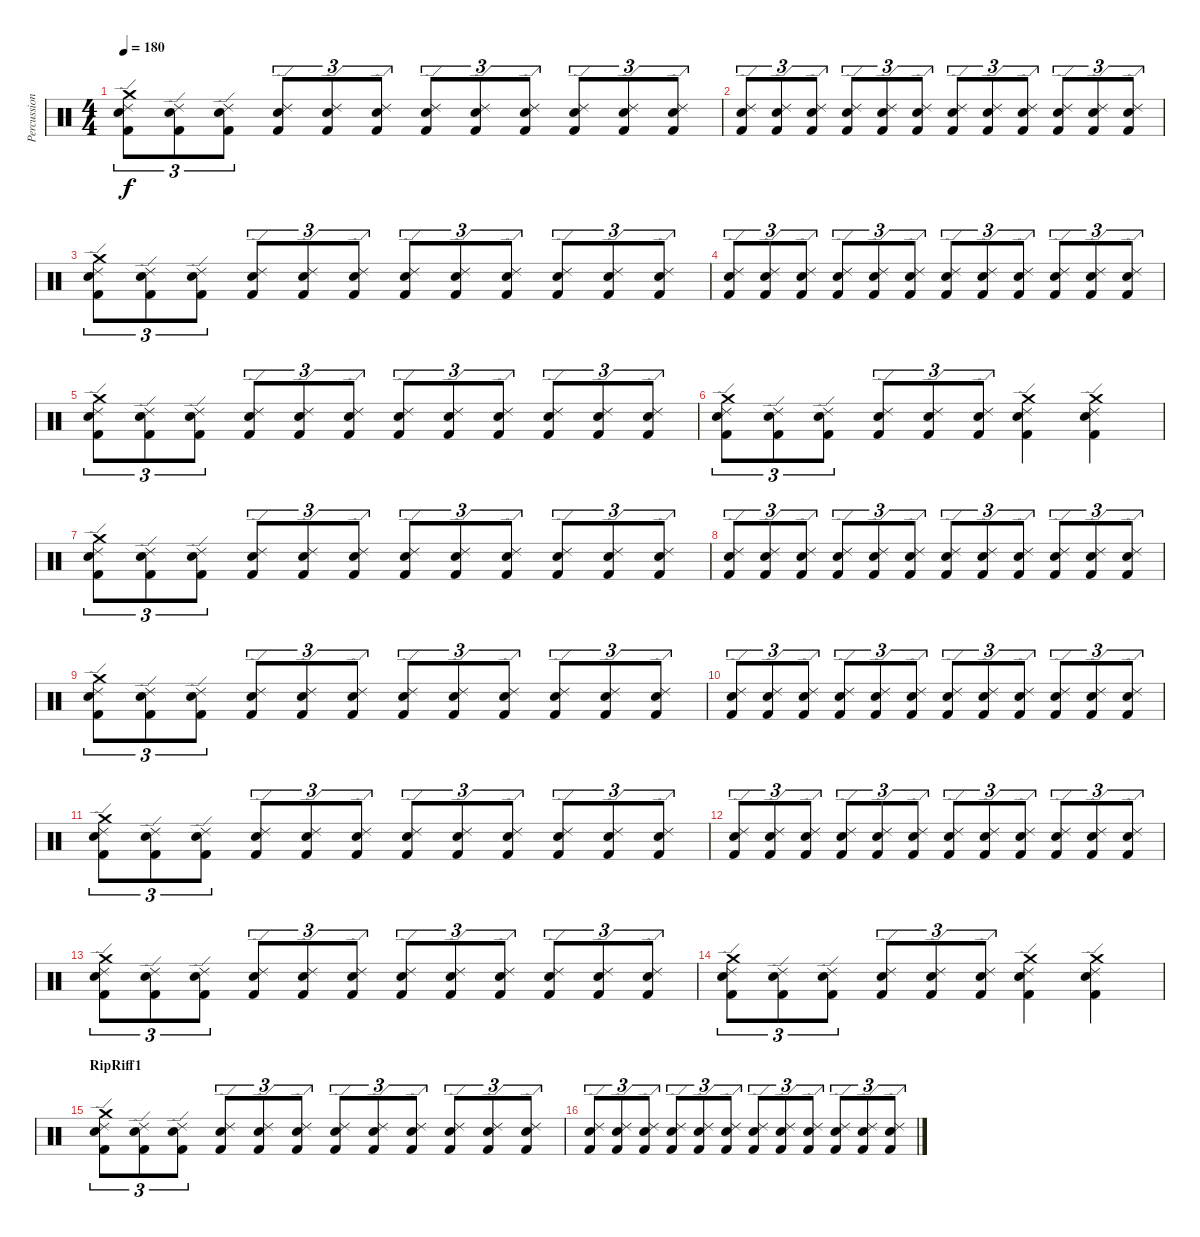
\track ("Percussioni" "Percussion") {instrument percussion}
\staff {score}
\articulation defaults
\ts (4 4)
\tempo 180
\clef neutral
\ks c
("Crash medium (hit)" "Ride (edge) 2" "Snare (hit) 2" "Kick (hit) 2").8{tu (3 2) dy f} ("Ride (edge) 2" "Snare (hit) 2" "Kick (hit) 2").8{tu (3 2)} ("Ride (edge) 2" "Snare (hit) 2" "Kick (hit) 2").8{tu (3 2)} ("Ride (edge) 2" "Snare (hit) 2" "Kick (hit) 2").8{tu (3 2)} ("Ride (edge) 2" "Snare (hit) 2" "Kick (hit) 2").8{tu (3 2)} ("Ride (edge) 2" "Snare (hit) 2" "Kick (hit) 2").8{tu (3 2)} ("Ride (edge) 2" "Snare (hit) 2" "Kick (hit) 2").8{tu (3 2)} ("Ride (edge) 2" "Snare (hit) 2" "Kick (hit) 2").8{tu (3 2)} ("Ride (edge) 2" "Snare (hit) 2" "Kick (hit) 2").8{tu (3 2)} ("Ride (edge) 2" "Snare (hit) 2" "Kick (hit) 2").8{tu (3 2)} ("Ride (edge) 2" "Snare (hit) 2" "Kick (hit) 2").8{tu (3 2)} ("Ride (edge) 2" "Snare (hit) 2" "Kick (hit) 2").8{tu (3 2)} |
("Ride (edge) 2" "Snare (hit) 2" "Kick (hit) 2").8{tu (3 2)} ("Ride (edge) 2" "Snare (hit) 2" "Kick (hit) 2").8{tu (3 2)} ("Ride (edge) 2" "Snare (hit) 2" "Kick (hit) 2").8{tu (3 2)} ("Ride (edge) 2" "Snare (hit) 2" "Kick (hit) 2").8{tu (3 2)} ("Ride (edge) 2" "Snare (hit) 2" "Kick (hit) 2").8{tu (3 2)} ("Ride (edge) 2" "Snare (hit) 2" "Kick (hit) 2").8{tu (3 2)} ("Ride (edge) 2" "Snare (hit) 2" "Kick (hit) 2").8{tu (3 2)} ("Ride (edge) 2" "Snare (hit) 2" "Kick (hit) 2").8{tu (3 2)} ("Ride (edge) 2" "Snare (hit) 2" "Kick (hit) 2").8{tu (3 2)} ("Ride (edge) 2" "Snare (hit) 2" "Kick (hit) 2").8{tu (3 2)} ("Ride (edge) 2" "Snare (hit) 2" "Kick (hit) 2").8{tu (3 2)} ("Ride (edge) 2" "Snare (hit) 2" "Kick (hit) 2").8{tu (3 2)} |
("Crash medium (hit)" "Ride (edge) 2" "Snare (hit) 2" "Kick (hit) 2").8{tu (3 2)} ("Ride (edge) 2" "Snare (hit) 2" "Kick (hit) 2").8{tu (3 2)} ("Ride (edge) 2" "Snare (hit) 2" "Kick (hit) 2").8{tu (3 2)} ("Ride (edge) 2" "Snare (hit) 2" "Kick (hit) 2").8{tu (3 2)} ("Ride (edge) 2" "Snare (hit) 2" "Kick (hit) 2").8{tu (3 2)} ("Ride (edge) 2" "Snare (hit) 2" "Kick (hit) 2").8{tu (3 2)} ("Ride (edge) 2" "Snare (hit) 2" "Kick (hit) 2").8{tu (3 2)} ("Ride (edge) 2" "Snare (hit) 2" "Kick (hit) 2").8{tu (3 2)} ("Ride (edge) 2" "Snare (hit) 2" "Kick (hit) 2").8{tu (3 2)} ("Ride (edge) 2" "Snare (hit) 2" "Kick (hit) 2").8{tu (3 2)} ("Ride (edge) 2" "Snare (hit) 2" "Kick (hit) 2").8{tu (3 2)} ("Ride (edge) 2" "Snare (hit) 2" "Kick (hit) 2").8{tu (3 2)} |
("Ride (edge) 2" "Snare (hit) 2" "Kick (hit) 2").8{tu (3 2)} ("Ride (edge) 2" "Snare (hit) 2" "Kick (hit) 2").8{tu (3 2)} ("Ride (edge) 2" "Snare (hit) 2" "Kick (hit) 2").8{tu (3 2)} ("Ride (edge) 2" "Snare (hit) 2" "Kick (hit) 2").8{tu (3 2)} ("Ride (edge) 2" "Snare (hit) 2" "Kick (hit) 2").8{tu (3 2)} ("Ride (edge) 2" "Snare (hit) 2" "Kick (hit) 2").8{tu (3 2)} ("Ride (edge) 2" "Snare (hit) 2" "Kick (hit) 2").8{tu (3 2)} ("Ride (edge) 2" "Snare (hit) 2" "Kick (hit) 2").8{tu (3 2)} ("Ride (edge) 2" "Snare (hit) 2" "Kick (hit) 2").8{tu (3 2)} ("Ride (edge) 2" "Snare (hit) 2" "Kick (hit) 2").8{tu (3 2)} ("Ride (edge) 2" "Snare (hit) 2" "Kick (hit) 2").8{tu (3 2)} ("Ride (edge) 2" "Snare (hit) 2" "Kick (hit) 2").8{tu (3 2)} |
("Crash medium (hit)" "Ride (edge) 2" "Snare (hit) 2" "Kick (hit) 2").8{tu (3 2)} ("Ride (edge) 2" "Snare (hit) 2" "Kick (hit) 2").8{tu (3 2)} ("Ride (edge) 2" "Snare (hit) 2" "Kick (hit) 2").8{tu (3 2)} ("Ride (edge) 2" "Snare (hit) 2" "Kick (hit) 2").8{tu (3 2)} ("Ride (edge) 2" "Snare (hit) 2" "Kick (hit) 2").8{tu (3 2)} ("Ride (edge) 2" "Snare (hit) 2" "Kick (hit) 2").8{tu (3 2)} ("Ride (edge) 2" "Snare (hit) 2" "Kick (hit) 2").8{tu (3 2)} ("Ride (edge) 2" "Snare (hit) 2" "Kick (hit) 2").8{tu (3 2)} ("Ride (edge) 2" "Snare (hit) 2" "Kick (hit) 2").8{tu (3 2)} ("Ride (edge) 2" "Snare (hit) 2" "Kick (hit) 2").8{tu (3 2)} ("Ride (edge) 2" "Snare (hit) 2" "Kick (hit) 2").8{tu (3 2)} ("Ride (edge) 2" "Snare (hit) 2" "Kick (hit) 2").8{tu (3 2)} |
("Crash medium (hit)" "Ride (edge) 2" "Snare (hit) 2" "Kick (hit) 2").8{tu (3 2)} ("Ride (edge) 2" "Snare (hit) 2" "Kick (hit) 2").8{tu (3 2)} ("Ride (edge) 2" "Snare (hit) 2" "Kick (hit) 2").8{tu (3 2)} ("Ride (edge) 2" "Snare (hit) 2" "Kick (hit) 2").8{tu (3 2)} ("Ride (edge) 2" "Snare (hit) 2" "Kick (hit) 2").8{tu (3 2)} ("Ride (edge) 2" "Snare (hit) 2" "Kick (hit) 2").8{tu (3 2)} ("Crash medium (hit)" "Ride (edge) 2" "Snare (hit) 2" "Kick (hit) 2").4 ("Crash medium (hit)" "Ride (edge) 2" "Snare (hit) 2" "Kick (hit) 2").4 |
("Crash medium (hit)" "Ride (edge) 2" "Snare (hit) 2" "Kick (hit) 2").8{tu (3 2)} ("Ride (edge) 2" "Snare (hit) 2" "Kick (hit) 2").8{tu (3 2)} ("Ride (edge) 2" "Snare (hit) 2" "Kick (hit) 2").8{tu (3 2)} ("Ride (edge) 2" "Snare (hit) 2" "Kick (hit) 2").8{tu (3 2)} ("Ride (edge) 2" "Snare (hit) 2" "Kick (hit) 2").8{tu (3 2)} ("Ride (edge) 2" "Snare (hit) 2" "Kick (hit) 2").8{tu (3 2)} ("Ride (edge) 2" "Snare (hit) 2" "Kick (hit) 2").8{tu (3 2)} ("Ride (edge) 2" "Snare (hit) 2" "Kick (hit) 2").8{tu (3 2)} ("Ride (edge) 2" "Snare (hit) 2" "Kick (hit) 2").8{tu (3 2)} ("Ride (edge) 2" "Snare (hit) 2" "Kick (hit) 2").8{tu (3 2)} ("Ride (edge) 2" "Snare (hit) 2" "Kick (hit) 2").8{tu (3 2)} ("Ride (edge) 2" "Snare (hit) 2" "Kick (hit) 2").8{tu (3 2)} |
("Ride (edge) 2" "Snare (hit) 2" "Kick (hit) 2").8{tu (3 2)} ("Ride (edge) 2" "Snare (hit) 2" "Kick (hit) 2").8{tu (3 2)} ("Ride (edge) 2" "Snare (hit) 2" "Kick (hit) 2").8{tu (3 2)} ("Ride (edge) 2" "Snare (hit) 2" "Kick (hit) 2").8{tu (3 2)} ("Ride (edge) 2" "Snare (hit) 2" "Kick (hit) 2").8{tu (3 2)} ("Ride (edge) 2" "Snare (hit) 2" "Kick (hit) 2").8{tu (3 2)} ("Ride (edge) 2" "Snare (hit) 2" "Kick (hit) 2").8{tu (3 2)} ("Ride (edge) 2" "Snare (hit) 2" "Kick (hit) 2").8{tu (3 2)} ("Ride (edge) 2" "Snare (hit) 2" "Kick (hit) 2").8{tu (3 2)} ("Ride (edge) 2" "Snare (hit) 2" "Kick (hit) 2").8{tu (3 2)} ("Ride (edge) 2" "Snare (hit) 2" "Kick (hit) 2").8{tu (3 2)} ("Ride (edge) 2" "Snare (hit) 2" "Kick (hit) 2").8{tu (3 2)} |
("Crash medium (hit)" "Ride (edge) 2" "Snare (hit) 2" "Kick (hit) 2").8{tu (3 2)} ("Ride (edge) 2" "Snare (hit) 2" "Kick (hit) 2").8{tu (3 2)} ("Ride (edge) 2" "Snare (hit) 2" "Kick (hit) 2").8{tu (3 2)} ("Ride (edge) 2" "Snare (hit) 2" "Kick (hit) 2").8{tu (3 2)} ("Ride (edge) 2" "Snare (hit) 2" "Kick (hit) 2").8{tu (3 2)} ("Ride (edge) 2" "Snare (hit) 2" "Kick (hit) 2").8{tu (3 2)} ("Ride (edge) 2" "Snare (hit) 2" "Kick (hit) 2").8{tu (3 2)} ("Ride (edge) 2" "Snare (hit) 2" "Kick (hit) 2").8{tu (3 2)} ("Ride (edge) 2" "Snare (hit) 2" "Kick (hit) 2").8{tu (3 2)} ("Ride (edge) 2" "Snare (hit) 2" "Kick (hit) 2").8{tu (3 2)} ("Ride (edge) 2" "Snare (hit) 2" "Kick (hit) 2").8{tu (3 2)} ("Ride (edge) 2" "Snare (hit) 2" "Kick (hit) 2").8{tu (3 2)} |
("Ride (edge) 2" "Snare (hit) 2" "Kick (hit) 2").8{tu (3 2)} ("Ride (edge) 2" "Snare (hit) 2" "Kick (hit) 2").8{tu (3 2)} ("Ride (edge) 2" "Snare (hit) 2" "Kick (hit) 2").8{tu (3 2)} ("Ride (edge) 2" "Snare (hit) 2" "Kick (hit) 2").8{tu (3 2)} ("Ride (edge) 2" "Snare (hit) 2" "Kick (hit) 2").8{tu (3 2)} ("Ride (edge) 2" "Snare (hit) 2" "Kick (hit) 2").8{tu (3 2)} ("Ride (edge) 2" "Snare (hit) 2" "Kick (hit) 2").8{tu (3 2)} ("Ride (edge) 2" "Snare (hit) 2" "Kick (hit) 2").8{tu (3 2)} ("Ride (edge) 2" "Snare (hit) 2" "Kick (hit) 2").8{tu (3 2)} ("Ride (edge) 2" "Snare (hit) 2" "Kick (hit) 2").8{tu (3 2)} ("Ride (edge) 2" "Snare (hit) 2" "Kick (hit) 2").8{tu (3 2)} ("Ride (edge) 2" "Snare (hit) 2" "Kick (hit) 2").8{tu (3 2)} |
("Crash medium (hit)" "Ride (edge) 2" "Snare (hit) 2" "Kick (hit) 2").8{tu (3 2)} ("Ride (edge) 2" "Snare (hit) 2" "Kick (hit) 2").8{tu (3 2)} ("Ride (edge) 2" "Snare (hit) 2" "Kick (hit) 2").8{tu (3 2)} ("Ride (edge) 2" "Snare (hit) 2" "Kick (hit) 2").8{tu (3 2)} ("Ride (edge) 2" "Snare (hit) 2" "Kick (hit) 2").8{tu (3 2)} ("Ride (edge) 2" "Snare (hit) 2" "Kick (hit) 2").8{tu (3 2)} ("Ride (edge) 2" "Snare (hit) 2" "Kick (hit) 2").8{tu (3 2)} ("Ride (edge) 2" "Snare (hit) 2" "Kick (hit) 2").8{tu (3 2)} ("Ride (edge) 2" "Snare (hit) 2" "Kick (hit) 2").8{tu (3 2)} ("Ride (edge) 2" "Snare (hit) 2" "Kick (hit) 2").8{tu (3 2)} ("Ride (edge) 2" "Snare (hit) 2" "Kick (hit) 2").8{tu (3 2)} ("Ride (edge) 2" "Snare (hit) 2" "Kick (hit) 2").8{tu (3 2)} |
("Ride (edge) 2" "Snare (hit) 2" "Kick (hit) 2").8{tu (3 2)} ("Ride (edge) 2" "Snare (hit) 2" "Kick (hit) 2").8{tu (3 2)} ("Ride (edge) 2" "Snare (hit) 2" "Kick (hit) 2").8{tu (3 2)} ("Ride (edge) 2" "Snare (hit) 2" "Kick (hit) 2").8{tu (3 2)} ("Ride (edge) 2" "Snare (hit) 2" "Kick (hit) 2").8{tu (3 2)} ("Ride (edge) 2" "Snare (hit) 2" "Kick (hit) 2").8{tu (3 2)} ("Ride (edge) 2" "Snare (hit) 2" "Kick (hit) 2").8{tu (3 2)} ("Ride (edge) 2" "Snare (hit) 2" "Kick (hit) 2").8{tu (3 2)} ("Ride (edge) 2" "Snare (hit) 2" "Kick (hit) 2").8{tu (3 2)} ("Ride (edge) 2" "Snare (hit) 2" "Kick (hit) 2").8{tu (3 2)} ("Ride (edge) 2" "Snare (hit) 2" "Kick (hit) 2").8{tu (3 2)} ("Ride (edge) 2" "Snare (hit) 2" "Kick (hit) 2").8{tu (3 2)} |
("Crash medium (hit)" "Ride (edge) 2" "Snare (hit) 2" "Kick (hit) 2").8{tu (3 2)} ("Ride (edge) 2" "Snare (hit) 2" "Kick (hit) 2").8{tu (3 2)} ("Ride (edge) 2" "Snare (hit) 2" "Kick (hit) 2").8{tu (3 2)} ("Ride (edge) 2" "Snare (hit) 2" "Kick (hit) 2").8{tu (3 2)} ("Ride (edge) 2" "Snare (hit) 2" "Kick (hit) 2").8{tu (3 2)} ("Ride (edge) 2" "Snare (hit) 2" "Kick (hit) 2").8{tu (3 2)} ("Ride (edge) 2" "Snare (hit) 2" "Kick (hit) 2").8{tu (3 2)} ("Ride (edge) 2" "Snare (hit) 2" "Kick (hit) 2").8{tu (3 2)} ("Ride (edge) 2" "Snare (hit) 2" "Kick (hit) 2").8{tu (3 2)} ("Ride (edge) 2" "Snare (hit) 2" "Kick (hit) 2").8{tu (3 2)} ("Ride (edge) 2" "Snare (hit) 2" "Kick (hit) 2").8{tu (3 2)} ("Ride (edge) 2" "Snare (hit) 2" "Kick (hit) 2").8{tu (3 2)} |
("Crash medium (hit)" "Ride (edge) 2" "Snare (hit) 2" "Kick (hit) 2").8{tu (3 2)} ("Ride (edge) 2" "Snare (hit) 2" "Kick (hit) 2").8{tu (3 2)} ("Ride (edge) 2" "Snare (hit) 2" "Kick (hit) 2").8{tu (3 2)} ("Ride (edge) 2" "Snare (hit) 2" "Kick (hit) 2").8{tu (3 2)} ("Ride (edge) 2" "Snare (hit) 2" "Kick (hit) 2").8{tu (3 2)} ("Ride (edge) 2" "Snare (hit) 2" "Kick (hit) 2").8{tu (3 2)} ("Crash medium (hit)" "Ride (edge) 2" "Snare (hit) 2" "Kick (hit) 2").4 ("Crash medium (hit)" "Ride (edge) 2" "Snare (hit) 2" "Kick (hit) 2").4 |
\section ("" "RipRiff1")
("Crash medium (hit)" "Ride (edge) 2" "Snare (hit) 2" "Kick (hit) 2").8{tu (3 2)} ("Ride (edge) 2" "Snare (hit) 2" "Kick (hit) 2").8{tu (3 2)} ("Ride (edge) 2" "Snare (hit) 2" "Kick (hit) 2").8{tu (3 2)} ("Ride (edge) 2" "Snare (hit) 2" "Kick (hit) 2").8{tu (3 2)} ("Ride (edge) 2" "Snare (hit) 2" "Kick (hit) 2").8{tu (3 2)} ("Ride (edge) 2" "Snare (hit) 2" "Kick (hit) 2").8{tu (3 2)} ("Ride (edge) 2" "Snare (hit) 2" "Kick (hit) 2").8{tu (3 2)} ("Ride (edge) 2" "Snare (hit) 2" "Kick (hit) 2").8{tu (3 2)} ("Ride (edge) 2" "Snare (hit) 2" "Kick (hit) 2").8{tu (3 2)} ("Ride (edge) 2" "Snare (hit) 2" "Kick (hit) 2").8{tu (3 2)} ("Ride (edge) 2" "Snare (hit) 2" "Kick (hit) 2").8{tu (3 2)} ("Ride (edge) 2" "Snare (hit) 2" "Kick (hit) 2").8{tu (3 2)} |
("Ride (edge) 2" "Snare (hit) 2" "Kick (hit) 2").8{tu (3 2)} ("Ride (edge) 2" "Snare (hit) 2" "Kick (hit) 2").8{tu (3 2)} ("Ride (edge) 2" "Snare (hit) 2" "Kick (hit) 2").8{tu (3 2)} ("Ride (edge) 2" "Snare (hit) 2" "Kick (hit) 2").8{tu (3 2)} ("Ride (edge) 2" "Snare (hit) 2" "Kick (hit) 2").8{tu (3 2)} ("Ride (edge) 2" "Snare (hit) 2" "Kick (hit) 2").8{tu (3 2)} ("Ride (edge) 2" "Snare (hit) 2" "Kick (hit) 2").8{tu (3 2)} ("Ride (edge) 2" "Snare (hit) 2" "Kick (hit) 2").8{tu (3 2)} ("Ride (edge) 2" "Snare (hit) 2" "Kick (hit) 2").8{tu (3 2)} ("Ride (edge) 2" "Snare (hit) 2" "Kick (hit) 2").8{tu (3 2)} ("Ride (edge) 2" "Snare (hit) 2" "Kick (hit) 2").8{tu (3 2)} ("Ride (edge) 2" "Snare (hit) 2" "Kick (hit) 2").8{tu (3 2)}
